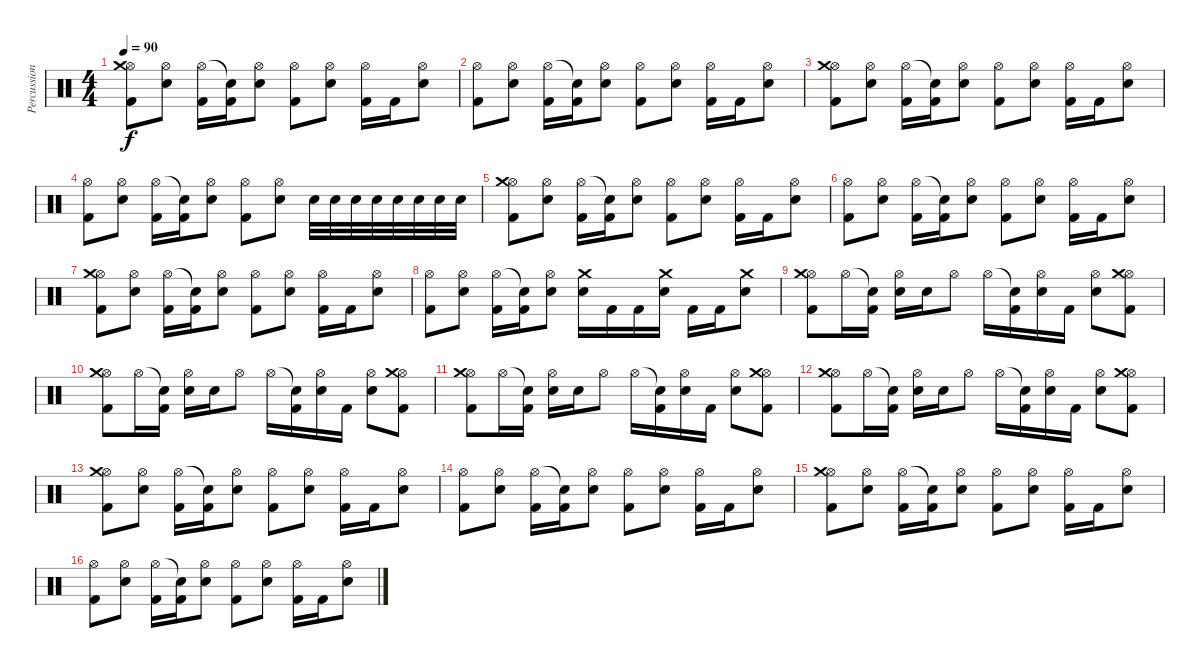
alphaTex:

\track ("Percussion" "Percussion") {instrument percussion}
\staff {score}
\articulation defaults
\ts (4 4)
\tempo 90
\clef neutral
\ks c
("Hi-Hat (open)" "Crash medium (hit)" "Kick (hit) 2").8{dy f} ("Hi-Hat (open)" "Snare (hit) 2").8 ("Hi-Hat (open)" "Kick (hit) 2").16 ("Snare (hit)"{t} "Kick (hit) 2").16 ("Hi-Hat (open)" "Snare (hit) 2").8 ("Hi-Hat (open)" "Kick (hit) 2").8 ("Hi-Hat (open)" "Snare (hit) 2").8 ("Hi-Hat (open)" "Kick (hit) 2").16 "Kick (hit) 2".16 ("Hi-Hat (open)" "Snare (hit) 2").8 |
("Hi-Hat (open)" "Kick (hit) 2").8 ("Hi-Hat (open)" "Snare (hit) 2").8 ("Hi-Hat (open)" "Kick (hit) 2").16 ("Snare (hit)"{t} "Kick (hit) 2").16 ("Hi-Hat (open)" "Snare (hit) 2").8 ("Hi-Hat (open)" "Kick (hit) 2").8 ("Hi-Hat (open)" "Snare (hit) 2").8 ("Hi-Hat (open)" "Kick (hit) 2").16 "Kick (hit) 2".16 ("Hi-Hat (open)" "Snare (hit) 2").8 |
("Hi-Hat (open)" "Crash medium (hit)" "Kick (hit) 2").8 ("Hi-Hat (open)" "Snare (hit) 2").8 ("Hi-Hat (open)" "Kick (hit) 2").16 ("Snare (hit)"{t} "Kick (hit) 2").16 ("Hi-Hat (open)" "Snare (hit) 2").8 ("Hi-Hat (open)" "Kick (hit) 2").8 ("Hi-Hat (open)" "Snare (hit) 2").8 ("Hi-Hat (open)" "Kick (hit) 2").16 "Kick (hit) 2".16 ("Hi-Hat (open)" "Snare (hit) 2").8 |
("Hi-Hat (open)" "Kick (hit) 2").8 ("Hi-Hat (open)" "Snare (hit) 2").8 ("Hi-Hat (open)" "Kick (hit) 2").16 ("Snare (hit)"{t} "Kick (hit) 2").16 ("Hi-Hat (open)" "Snare (hit) 2").8 ("Hi-Hat (open)" "Kick (hit) 2").8 ("Hi-Hat (open)" "Snare (hit) 2").8 "Snare (hit) 2".32 "Snare (hit) 2".32 "Snare (hit) 2".32 "Snare (hit) 2".32 "Snare (hit) 2".32 "Snare (hit) 2".32 "Snare (hit) 2".32 "Snare (hit) 2".32 |
("Hi-Hat (open)" "Crash medium (hit)" "Kick (hit) 2").8 ("Hi-Hat (open)" "Snare (hit) 2").8 ("Hi-Hat (open)" "Kick (hit) 2").16 ("Snare (hit)"{t} "Kick (hit) 2").16 ("Hi-Hat (open)" "Snare (hit) 2").8 ("Hi-Hat (open)" "Kick (hit) 2").8 ("Hi-Hat (open)" "Snare (hit) 2").8 ("Hi-Hat (open)" "Kick (hit) 2").16 "Kick (hit) 2".16 ("Hi-Hat (open)" "Snare (hit) 2").8 |
("Hi-Hat (open)" "Kick (hit) 2").8 ("Hi-Hat (open)" "Snare (hit) 2").8 ("Hi-Hat (open)" "Kick (hit) 2").16 ("Snare (hit)"{t} "Kick (hit) 2").16 ("Hi-Hat (open)" "Snare (hit) 2").8 ("Hi-Hat (open)" "Kick (hit) 2").8 ("Hi-Hat (open)" "Snare (hit) 2").8 ("Hi-Hat (open)" "Kick (hit) 2").16 "Kick (hit) 2".16 ("Hi-Hat (open)" "Snare (hit) 2").8 |
("Hi-Hat (open)" "Crash medium (hit)" "Kick (hit) 2").8 ("Hi-Hat (open)" "Snare (hit) 2").8 ("Hi-Hat (open)" "Kick (hit) 2").16 ("Snare (hit)"{t} "Kick (hit) 2").16 ("Hi-Hat (open)" "Snare (hit) 2").8 ("Hi-Hat (open)" "Kick (hit) 2").8 ("Hi-Hat (open)" "Snare (hit) 2").8 ("Hi-Hat (open)" "Kick (hit) 2").16 "Kick (hit) 2".16 ("Hi-Hat (open)" "Snare (hit) 2").8 |
("Hi-Hat (open)" "Kick (hit) 2").8 ("Hi-Hat (open)" "Snare (hit) 2").8 ("Hi-Hat (open)" "Kick (hit) 2").16 ("Snare (hit)"{t} "Kick (hit) 2").16 ("Hi-Hat (open)" "Snare (hit) 2").8 ("Crash medium (hit)" "Snare (hit) 2").16 "Kick (hit) 2".16 "Kick (hit) 2".16 ("Crash medium (hit)" "Snare (hit) 2").16 "Kick (hit) 2".16 "Kick (hit) 2".16 ("Crash medium (hit)" "Snare (hit) 2").8 |
("Hi-Hat (open)" "Crash medium (hit)" "Kick (hit) 2").8 "Hi-Hat (open)".16 ("Snare (hit)"{t} "Kick (hit) 2").16 ("Hi-Hat (open)" "Snare (hit) 2").16 "Snare (hit) 2".16 "Hi-Hat (open)".8 "Hi-Hat (open)".16 ("Snare (hit)"{t} "Kick (hit) 2").16 ("Hi-Hat (open)" "Snare (hit) 2").16 "Kick (hit) 2".16 ("Hi-Hat (open)" "Snare (hit) 2").8 ("Hi-Hat (open)" "Crash medium (hit)" "Kick (hit) 2").8 |
("Hi-Hat (open)" "Crash medium (hit)" "Kick (hit) 2").8 "Hi-Hat (open)".16 ("Snare (hit)"{t} "Kick (hit) 2").16 ("Hi-Hat (open)" "Snare (hit) 2").16 "Snare (hit) 2".16 "Hi-Hat (open)".8 "Hi-Hat (open)".16 ("Snare (hit)"{t} "Kick (hit) 2").16 ("Hi-Hat (open)" "Snare (hit) 2").16 "Kick (hit) 2".16 ("Hi-Hat (open)" "Snare (hit) 2").8 ("Hi-Hat (open)" "Crash medium (hit)" "Kick (hit) 2").8 |
("Hi-Hat (open)" "Crash medium (hit)" "Kick (hit) 2").8 "Hi-Hat (open)".16 ("Snare (hit)"{t} "Kick (hit) 2").16 ("Hi-Hat (open)" "Snare (hit) 2").16 "Snare (hit) 2".16 "Hi-Hat (open)".8 "Hi-Hat (open)".16 ("Snare (hit)"{t} "Kick (hit) 2").16 ("Hi-Hat (open)" "Snare (hit) 2").16 "Kick (hit) 2".16 ("Hi-Hat (open)" "Snare (hit) 2").8 ("Hi-Hat (open)" "Crash medium (hit)" "Kick (hit) 2").8 |
("Hi-Hat (open)" "Crash medium (hit)" "Kick (hit) 2").8 "Hi-Hat (open)".16 ("Snare (hit)"{t} "Kick (hit) 2").16 ("Hi-Hat (open)" "Snare (hit) 2").16 "Snare (hit) 2".16 "Hi-Hat (open)".8 "Hi-Hat (open)".16 ("Snare (hit)"{t} "Kick (hit) 2").16 ("Hi-Hat (open)" "Snare (hit) 2").16 "Kick (hit) 2".16 ("Hi-Hat (open)" "Snare (hit) 2").8 ("Hi-Hat (open)" "Crash medium (hit)" "Kick (hit) 2").8 |
("Hi-Hat (open)" "Crash medium (hit)" "Kick (hit) 2").8 ("Hi-Hat (open)" "Snare (hit) 2").8 ("Hi-Hat (open)" "Kick (hit) 2").16 ("Snare (hit)"{t} "Kick (hit) 2").16 ("Hi-Hat (open)" "Snare (hit) 2").8 ("Hi-Hat (open)" "Kick (hit) 2").8 ("Hi-Hat (open)" "Snare (hit) 2").8 ("Hi-Hat (open)" "Kick (hit) 2").16 "Kick (hit) 2".16 ("Hi-Hat (open)" "Snare (hit) 2").8 |
("Hi-Hat (open)" "Kick (hit) 2").8 ("Hi-Hat (open)" "Snare (hit) 2").8 ("Hi-Hat (open)" "Kick (hit) 2").16 ("Snare (hit)"{t} "Kick (hit) 2").16 ("Hi-Hat (open)" "Snare (hit) 2").8 ("Hi-Hat (open)" "Kick (hit) 2").8 ("Hi-Hat (open)" "Snare (hit) 2").8 ("Hi-Hat (open)" "Kick (hit) 2").16 "Kick (hit) 2".16 ("Hi-Hat (open)" "Snare (hit) 2").8 |
("Hi-Hat (open)" "Crash medium (hit)" "Kick (hit) 2").8 ("Hi-Hat (open)" "Snare (hit) 2").8 ("Hi-Hat (open)" "Kick (hit) 2").16 ("Snare (hit)"{t} "Kick (hit) 2").16 ("Hi-Hat (open)" "Snare (hit) 2").8 ("Hi-Hat (open)" "Kick (hit) 2").8 ("Hi-Hat (open)" "Snare (hit) 2").8 ("Hi-Hat (open)" "Kick (hit) 2").16 "Kick (hit) 2".16 ("Hi-Hat (open)" "Snare (hit) 2").8 |
("Hi-Hat (open)" "Kick (hit) 2").8 ("Hi-Hat (open)" "Snare (hit) 2").8 ("Hi-Hat (open)" "Kick (hit) 2").16 ("Snare (hit)"{t} "Kick (hit) 2").16 ("Hi-Hat (open)" "Snare (hit) 2").8 ("Hi-Hat (open)" "Kick (hit) 2").8 ("Hi-Hat (open)" "Snare (hit) 2").8 ("Hi-Hat (open)" "Kick (hit) 2").16 "Kick (hit) 2".16 ("Hi-Hat (open)" "Snare (hit) 2").8
